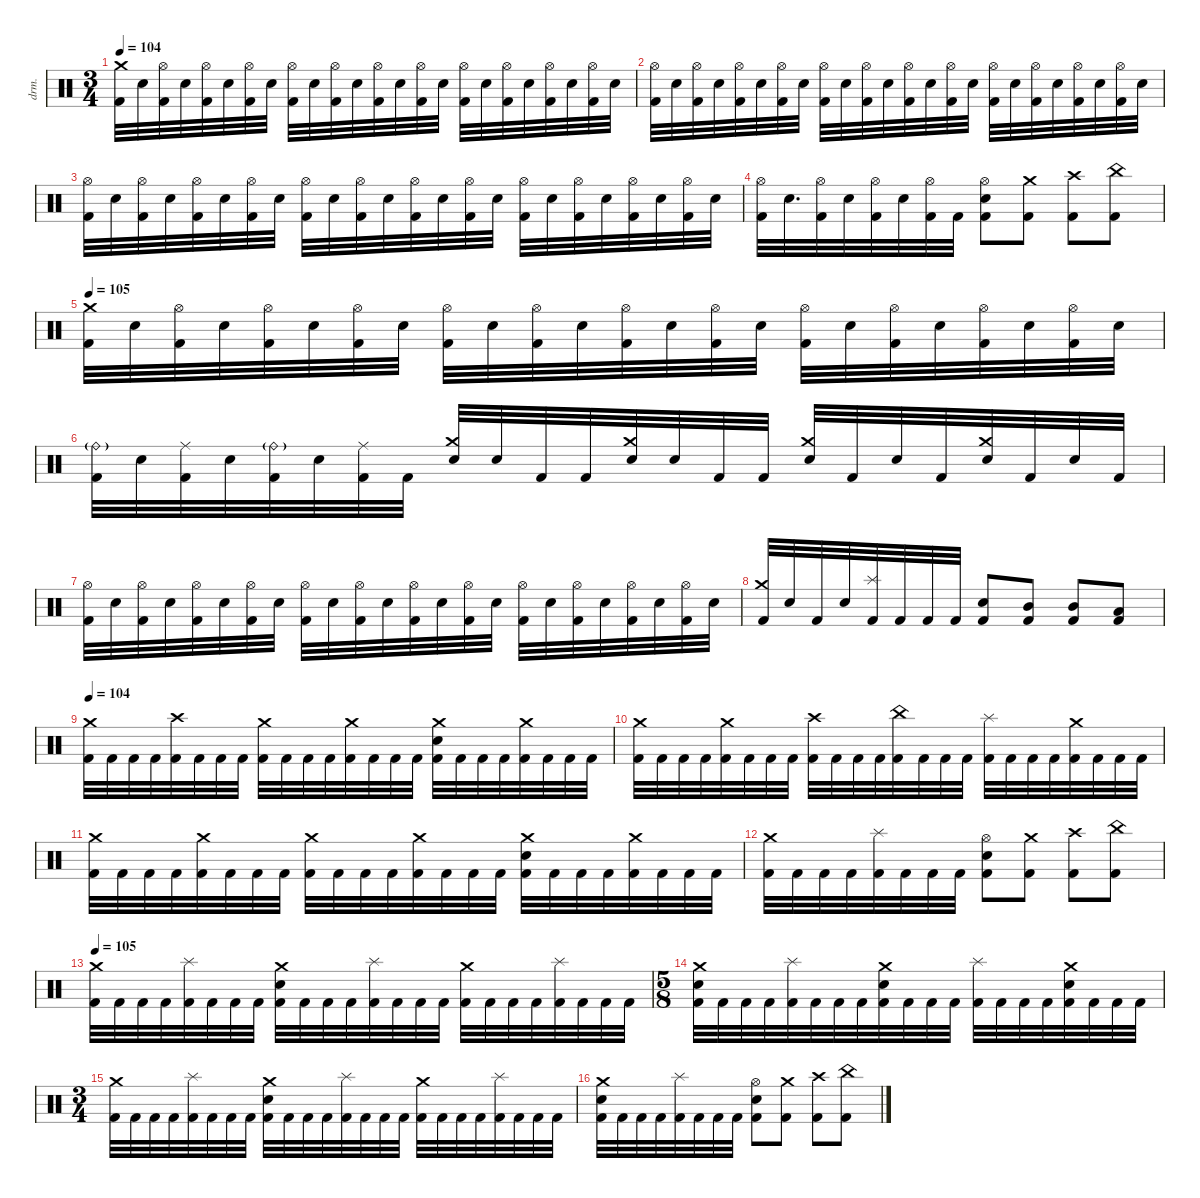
\hideDynamics
\bracketExtendMode nobrackets
\track ("Drums" "drm.") {instrument percussion}
\staff {score}
\articulation defaults
\ts (3 4)
\tempo 104
\clef neutral
\ks c
("Kick (hit) 2" "Crash medium (hit)").32{dy mf beam Down} "Snare (hit) 2".32{beam Down} ("Kick (hit) 2" "Hi-Hat (open)").32{beam Down} "Snare (hit) 2".32{beam Down} ("Kick (hit) 2" "Hi-Hat (open)").32{beam Down} "Snare (hit) 2".32{beam Down} ("Kick (hit) 2" "Hi-Hat (open)").32{beam Down} "Snare (hit) 2".32{beam Down} ("Kick (hit) 2" "Hi-Hat (open)").32{beam Down} "Snare (hit) 2".32{beam Down} ("Kick (hit) 2" "Hi-Hat (open)").32{beam Down} "Snare (hit) 2".32{beam Down} ("Kick (hit) 2" "Hi-Hat (open)").32{beam Down} "Snare (hit) 2".32{beam Down} ("Kick (hit) 2" "Hi-Hat (open)").32{beam Down} "Snare (hit) 2".32{beam Down} ("Kick (hit) 2" "Hi-Hat (open)").32{beam Down} "Snare (hit) 2".32{beam Down} ("Kick (hit) 2" "Hi-Hat (open)").32{beam Down} "Snare (hit) 2".32{beam Down} ("Kick (hit) 2" "Hi-Hat (open)").32{beam Down} "Snare (hit) 2".32{beam Down} ("Kick (hit) 2" "Hi-Hat (open)").32{beam Down} "Snare (hit) 2".32{beam Down} |
("Kick (hit) 2" "Hi-Hat (open)").32{beam Down} "Snare (hit) 2".32{beam Down} ("Kick (hit) 2" "Hi-Hat (open)").32{beam Down} "Snare (hit) 2".32{beam Down} ("Kick (hit) 2" "Hi-Hat (open)").32{beam Down} "Snare (hit) 2".32{beam Down} ("Kick (hit) 2" "Hi-Hat (open)").32{beam Down} "Snare (hit) 2".32{beam Down} ("Kick (hit) 2" "Hi-Hat (open)").32{beam Down} "Snare (hit) 2".32{beam Down} ("Kick (hit) 2" "Hi-Hat (open)").32{beam Down} "Snare (hit) 2".32{beam Down} ("Kick (hit) 2" "Hi-Hat (open)").32{beam Down} "Snare (hit) 2".32{beam Down} ("Kick (hit) 2" "Hi-Hat (open)").32{beam Down} "Snare (hit) 2".32{beam Down} ("Kick (hit) 2" "Hi-Hat (open)").32{beam Down} "Snare (hit) 2".32{beam Down} ("Kick (hit) 2" "Hi-Hat (open)").32{beam Down} "Snare (hit) 2".32{beam Down} ("Kick (hit) 2" "Hi-Hat (open)").32{beam Down} "Snare (hit) 2".32{beam Down} ("Kick (hit) 2" "Hi-Hat (open)").32{beam Down} "Snare (hit) 2".32{beam Down} |
("Kick (hit) 2" "Hi-Hat (open)").32{beam Down} "Snare (hit) 2".32{beam Down} ("Kick (hit) 2" "Hi-Hat (open)").32{beam Down} "Snare (hit) 2".32{beam Down} ("Kick (hit) 2" "Hi-Hat (open)").32{beam Down} "Snare (hit) 2".32{beam Down} ("Kick (hit) 2" "Hi-Hat (open)").32{beam Down} "Snare (hit) 2".32{beam Down} ("Kick (hit) 2" "Hi-Hat (open)").32{beam Down} "Snare (hit) 2".32{beam Down} ("Kick (hit) 2" "Hi-Hat (open)").32{beam Down} "Snare (hit) 2".32{beam Down} ("Kick (hit) 2" "Hi-Hat (open)").32{beam Down} "Snare (hit) 2".32{beam Down} ("Kick (hit) 2" "Hi-Hat (open)").32{beam Down} "Snare (hit) 2".32{beam Down} ("Kick (hit) 2" "Hi-Hat (open)").32{beam Down} "Snare (hit) 2".32{beam Down} ("Kick (hit) 2" "Hi-Hat (open)").32{beam Down} "Snare (hit) 2".32{beam Down} ("Kick (hit) 2" "Hi-Hat (open)").32{beam Down} "Snare (hit) 2".32{beam Down} ("Kick (hit) 2" "Hi-Hat (open)").32{beam Down} "Snare (hit) 2".32{beam Down} |
("Kick (hit) 2" "Hi-Hat (open)").32{beam Down} "Snare (hit) 2".32{d beam Down} ("Kick (hit) 2" "Hi-Hat (open)").32{beam Down} "Snare (hit) 2".32{beam Down} ("Kick (hit) 2" "Hi-Hat (open)").32{beam Down} "Snare (hit) 2".32{beam Down} ("Kick (hit) 2" "Hi-Hat (open)").32{beam Down} "Kick (hit) 2".32{beam Down} ("Snare (hit) 2" "Kick (hit) 2" "Hi-Hat (open)").8{beam Down} ("Kick (hit) 2" "Crash medium (hit)").8{beam Down} ("Kick (hit) 2" "Crash high (hit)").8{beam Down} ("Kick (hit) 2" "China (hit)").8{beam Down} |
\tempo 105
("Kick (hit) 2" "Crash medium (hit)").32{beam Down} "Snare (hit) 2".32{beam Down} ("Kick (hit) 2" "Hi-Hat (open)").32{beam Down} "Snare (hit) 2".32{beam Down} ("Kick (hit) 2" "Hi-Hat (open)").32{beam Down} "Snare (hit) 2".32{beam Down} ("Kick (hit) 2" "Hi-Hat (open)").32{beam Down} "Snare (hit) 2".32{beam Down} ("Kick (hit) 2" "Hi-Hat (open)").32{beam Down} "Snare (hit) 2".32{beam Down} ("Kick (hit) 2" "Hi-Hat (open)").32{beam Down} "Snare (hit) 2".32{beam Down} ("Kick (hit) 2" "Hi-Hat (open)").32{beam Down} "Snare (hit) 2".32{beam Down} ("Kick (hit) 2" "Hi-Hat (open)").32{beam Down} "Snare (hit) 2".32{beam Down} ("Kick (hit) 2" "Hi-Hat (open)").32{beam Down} "Snare (hit) 2".32{beam Down} ("Kick (hit) 2" "Hi-Hat (open)").32{beam Down} "Snare (hit) 2".32{beam Down} ("Kick (hit) 2" "Hi-Hat (open)").32{beam Down} "Snare (hit) 2".32{beam Down} ("Kick (hit) 2" "Hi-Hat (open)").32{beam Down} "Snare (hit) 2".32{beam Down} |
("Kick (hit) 2" "Ride (bell)"{g}).32{beam Down} "Snare (hit) 2".32{beam Down} ("Kick (hit) 2" "Ride (middle)").32{beam Down} "Snare (hit) 2".32{beam Down} ("Kick (hit) 2" "Ride (bell)"{g}).32{beam Down} "Snare (hit) 2".32{beam Down} ("Kick (hit) 2" "Ride (middle)").32{beam Down} "Kick (hit) 2".32{beam Down} ("Snare (hit) 2" "Crash medium (hit)").32{beam Up} "Snare (hit) 2".32{beam Up} "Kick (hit) 2".32{beam Up} "Kick (hit) 2".32{beam Up} ("Snare (hit) 2" "Crash medium (hit)").32{beam Up} "Snare (hit) 2".32{beam Up} "Kick (hit) 2".32{beam Up} "Kick (hit) 2".32{beam Up} ("Snare (hit) 2" "Crash medium (hit)").32{beam Up} "Kick (hit) 2".32{beam Up} "Snare (hit) 2".32{beam Up} "Kick (hit) 2".32{beam Up} ("Snare (hit) 2" "Crash medium (hit)").32{beam Up} "Kick (hit) 2".32{beam Up} "Snare (hit) 2".32{beam Up} "Kick (hit) 2".32{beam Up} |
("Kick (hit) 2" "Hi-Hat (open)").32{beam Down} "Snare (hit) 2".32{beam Down} ("Kick (hit) 2" "Hi-Hat (open)").32{beam Down} "Snare (hit) 2".32{beam Down} ("Kick (hit) 2" "Hi-Hat (open)").32{beam Down} "Snare (hit) 2".32{beam Down} ("Kick (hit) 2" "Hi-Hat (open)").32{beam Down} "Snare (hit) 2".32{beam Down} ("Kick (hit) 2" "Hi-Hat (open)").32{beam Down} "Snare (hit) 2".32{beam Down} ("Kick (hit) 2" "Hi-Hat (open)").32{beam Down} "Snare (hit) 2".32{beam Down} ("Kick (hit) 2" "Hi-Hat (open)").32{beam Down} "Snare (hit) 2".32{beam Down} ("Kick (hit) 2" "Hi-Hat (open)").32{beam Down} "Snare (hit) 2".32{beam Down} ("Kick (hit) 2" "Hi-Hat (open)").32{beam Down} "Snare (hit) 2".32{beam Down} ("Kick (hit) 2" "Hi-Hat (open)").32{beam Down} "Snare (hit) 2".32{beam Down} ("Kick (hit) 2" "Hi-Hat (open)").32{beam Down} "Snare (hit) 2".32{beam Down} ("Kick (hit) 2" "Hi-Hat (open)").32{beam Down} "Snare (hit) 2".32{beam Down} |
("Kick (hit) 2" "Crash medium (hit)").32{beam Up} "Snare (hit) 2".32{beam Up} "Kick (hit) 2".32{beam Up} "Snare (hit) 2".32{beam Up} ("Splash (hit)" "Kick (hit) 2").32{beam Up} "Kick (hit) 2".32{beam Up} "Kick (hit) 2".32{beam Up} "Kick (hit) 2".32{beam Up} ("Kick (hit) 2" "Snare (hit) 2").8{beam Up} ("Kick (hit) 2" "Mid Tom (hit)").8{beam Up} ("Kick (hit) 2" "Mid Tom (hit)").8{beam Up} ("Kick (hit) 2" "Low Tom (hit)").8{beam Up} |
\tempo 104
("Kick (hit) 2" "Crash medium (hit)").32{beam Down} "Kick (hit) 2".32{beam Down} "Kick (hit) 2".32{beam Down} "Kick (hit) 2".32{beam Down} ("Kick (hit) 2" "Crash high (hit)").32{beam Down} "Kick (hit) 2".32{beam Down} "Kick (hit) 2".32{beam Down} "Kick (hit) 2".32{beam Down} ("Kick (hit) 2" "Crash medium (hit)").32{beam Down} "Kick (hit) 2".32{beam Down} "Kick (hit) 2".32{beam Down} "Kick (hit) 2".32{beam Down} ("Kick (hit) 2" "Crash medium (hit)").32{beam Down} "Kick (hit) 2".32{beam Down} "Kick (hit) 2".32{beam Down} "Kick (hit) 2".32{beam Down} ("Kick (hit) 2" "Crash medium (hit)" "Snare (hit) 2").32{beam Down} "Kick (hit) 2".32{beam Down} "Kick (hit) 2".32{beam Down} "Kick (hit) 2".32{beam Down} ("Kick (hit) 2" "Crash medium (hit)").32{beam Down} "Kick (hit) 2".32{beam Down} "Kick (hit) 2".32{beam Down} "Kick (hit) 2".32{beam Down} |
("Kick (hit) 2" "Crash medium (hit)").32{beam Down} "Kick (hit) 2".32{beam Down} "Kick (hit) 2".32{beam Down} "Kick (hit) 2".32{beam Down} ("Kick (hit) 2" "Crash medium (hit)").32{beam Down} "Kick (hit) 2".32{beam Down} "Kick (hit) 2".32{beam Down} "Kick (hit) 2".32{beam Down} ("Kick (hit) 2" "Crash high (hit)").32{beam Down} "Kick (hit) 2".32{beam Down} "Kick (hit) 2".32{beam Down} "Kick (hit) 2".32{beam Down} ("Kick (hit) 2" "China (hit)").32{beam Down} "Kick (hit) 2".32{beam Down} "Kick (hit) 2".32{beam Down} "Kick (hit) 2".32{beam Down} ("Kick (hit) 2" "Splash (hit)").32{beam Down} "Kick (hit) 2".32{beam Down} "Kick (hit) 2".32{beam Down} "Kick (hit) 2".32{beam Down} ("Kick (hit) 2" "Crash medium (hit)").32{beam Down} "Kick (hit) 2".32{beam Down} "Kick (hit) 2".32{beam Down} "Kick (hit) 2".32{beam Down} |
("Kick (hit) 2" "Crash medium (hit)").32{beam Down} "Kick (hit) 2".32{beam Down} "Kick (hit) 2".32{beam Down} "Kick (hit) 2".32{beam Down} ("Kick (hit) 2" "Crash medium (hit)").32{beam Down} "Kick (hit) 2".32{beam Down} "Kick (hit) 2".32{beam Down} "Kick (hit) 2".32{beam Down} ("Kick (hit) 2" "Crash medium (hit)").32{beam Down} "Kick (hit) 2".32{beam Down} "Kick (hit) 2".32{beam Down} "Kick (hit) 2".32{beam Down} ("Kick (hit) 2" "Crash medium (hit)").32{beam Down} "Kick (hit) 2".32{beam Down} "Kick (hit) 2".32{beam Down} "Kick (hit) 2".32{beam Down} ("Kick (hit) 2" "Crash medium (hit)" "Snare (hit) 2").32{beam Down} "Kick (hit) 2".32{beam Down} "Kick (hit) 2".32{beam Down} "Kick (hit) 2".32{beam Down} ("Kick (hit) 2" "Crash medium (hit)").32{beam Down} "Kick (hit) 2".32{beam Down} "Kick (hit) 2".32{beam Down} "Kick (hit) 2".32{beam Down} |
("Kick (hit) 2" "Crash medium (hit)").32{beam Down} "Kick (hit) 2".32{beam Down} "Kick (hit) 2".32{beam Down} "Kick (hit) 2".32{beam Down} ("Kick (hit) 2" "Splash (hit)").32{beam Down} "Kick (hit) 2".32{beam Down} "Kick (hit) 2".32{beam Down} "Kick (hit) 2".32{beam Down} ("Snare (hit) 2" "Kick (hit) 2" "Hi-Hat (open)").8{beam Down} ("Kick (hit) 2" "Crash medium (hit)").8{beam Down} ("Kick (hit) 2" "Crash high (hit)").8{beam Down} ("Kick (hit) 2" "China (hit)").8{beam Down} |
\tempo 105
("Kick (hit) 2" "Crash medium (hit)").32{beam Down} "Kick (hit) 2".32{beam Down} "Kick (hit) 2".32{beam Down} "Kick (hit) 2".32{beam Down} ("Kick (hit) 2" "Splash (hit)").32{beam Down} "Kick (hit) 2".32{beam Down} "Kick (hit) 2".32{beam Down} "Kick (hit) 2".32{beam Down} ("Kick (hit) 2" "Crash medium (hit)" "Snare (hit) 2").32{beam Down} "Kick (hit) 2".32{beam Down} "Kick (hit) 2".32{beam Down} "Kick (hit) 2".32{beam Down} ("Kick (hit) 2" "Splash (hit)").32{beam Down} "Kick (hit) 2".32{beam Down} "Kick (hit) 2".32{beam Down} "Kick (hit) 2".32{beam Down} ("Kick (hit) 2" "Crash medium (hit)").32{beam Down} "Kick (hit) 2".32{beam Down} "Kick (hit) 2".32{beam Down} "Kick (hit) 2".32{beam Down} ("Kick (hit) 2" "Splash (hit)").32{beam Down} "Kick (hit) 2".32{beam Down} "Kick (hit) 2".32{beam Down} "Kick (hit) 2".32{beam Down} |
\ts (5 8)
\beaming (8 3 2)
("Kick (hit) 2" "Crash medium (hit)" "Snare (hit) 2").32{beam Down} "Kick (hit) 2".32{beam Down} "Kick (hit) 2".32{beam Down} "Kick (hit) 2".32{beam Down} ("Kick (hit) 2" "Splash (hit)").32{beam Down} "Kick (hit) 2".32{beam Down} "Kick (hit) 2".32{beam Down} "Kick (hit) 2".32{beam Down} ("Kick (hit) 2" "Crash medium (hit)" "Snare (hit) 2").32{beam Down} "Kick (hit) 2".32{beam Down} "Kick (hit) 2".32{beam Down} "Kick (hit) 2".32{beam Down} ("Kick (hit) 2" "Splash (hit)").32{beam Down} "Kick (hit) 2".32{beam Down} "Kick (hit) 2".32{beam Down} "Kick (hit) 2".32{beam Down} ("Kick (hit) 2" "Crash medium (hit)" "Snare (hit) 2").32{beam Down} "Kick (hit) 2".32{beam Down} "Kick (hit) 2".32{beam Down} "Kick (hit) 2".32{beam Down} |
\ts (3 4)
\beaming (8 2 2 2)
("Kick (hit) 2" "Crash medium (hit)").32{beam Down} "Kick (hit) 2".32{beam Down} "Kick (hit) 2".32{beam Down} "Kick (hit) 2".32{beam Down} ("Kick (hit) 2" "Splash (hit)").32{beam Down} "Kick (hit) 2".32{beam Down} "Kick (hit) 2".32{beam Down} "Kick (hit) 2".32{beam Down} ("Kick (hit) 2" "Crash medium (hit)" "Snare (hit) 2").32{beam Down} "Kick (hit) 2".32{beam Down} "Kick (hit) 2".32{beam Down} "Kick (hit) 2".32{beam Down} ("Kick (hit) 2" "Splash (hit)").32{beam Down} "Kick (hit) 2".32{beam Down} "Kick (hit) 2".32{beam Down} "Kick (hit) 2".32{beam Down} ("Kick (hit) 2" "Crash medium (hit)").32{beam Down} "Kick (hit) 2".32{beam Down} "Kick (hit) 2".32{beam Down} "Kick (hit) 2".32{beam Down} ("Kick (hit) 2" "Splash (hit)").32{beam Down} "Kick (hit) 2".32{beam Down} "Kick (hit) 2".32{beam Down} "Kick (hit) 2".32{beam Down} |
("Kick (hit) 2" "Crash medium (hit)" "Snare (hit) 2").32{beam Down} "Kick (hit) 2".32{beam Down} "Kick (hit) 2".32{beam Down} "Kick (hit) 2".32{beam Down} ("Kick (hit) 2" "Splash (hit)").32{beam Down} "Kick (hit) 2".32{beam Down} "Kick (hit) 2".32{beam Down} "Kick (hit) 2".32{beam Down} ("Snare (hit) 2" "Kick (hit) 2" "Hi-Hat (open)").8{beam Down} ("Kick (hit) 2" "Crash medium (hit)").8{beam Down} ("Kick (hit) 2" "Crash high (hit)").8{beam Down} ("Kick (hit) 2" "China (hit)").8{beam Down}
